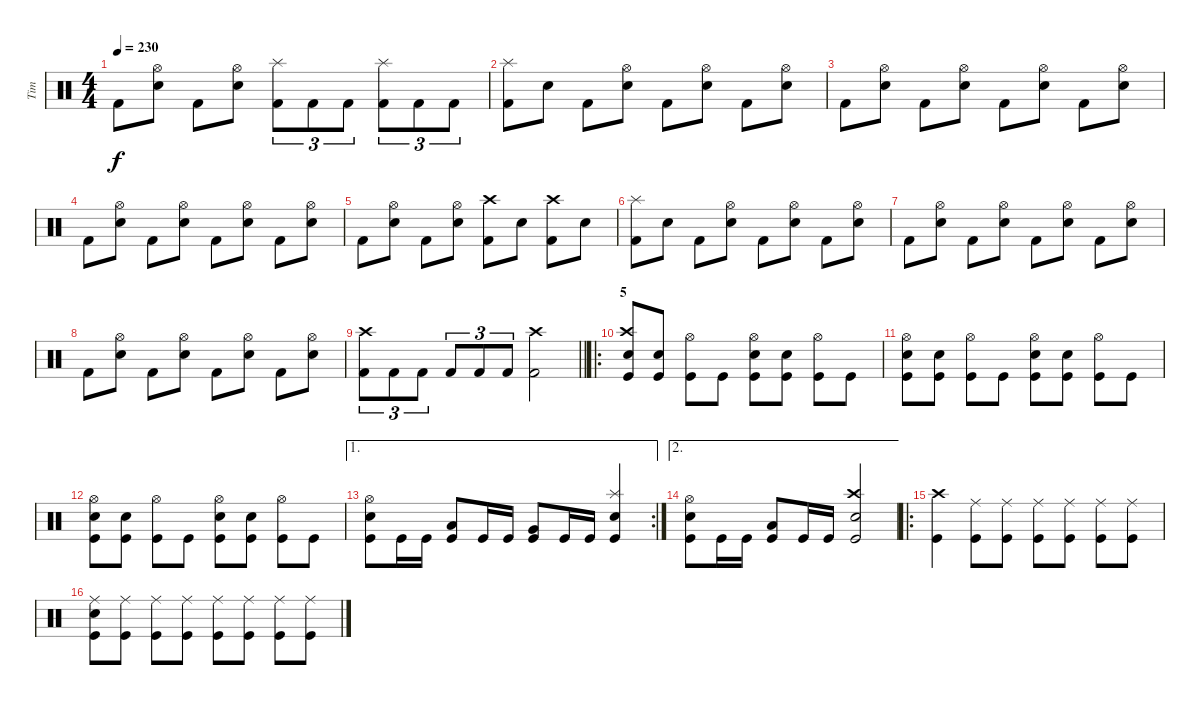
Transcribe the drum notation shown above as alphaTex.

\track ("Tim" "Tim") {instrument percussion}
\staff {score}
\articulation defaults
\ts (4 4)
\tempo 230
\clef neutral
\ks c "Kick (hit) 2".8{dy f}
("Hi-Hat (open)" "Snare (hit) 2").8 "Kick (hit) 2".8 ("Hi-Hat (open)" "Snare (hit) 2").8 ("Splash (hit)" "Kick (hit) 2").8{tu (3 2)} "Kick (hit) 2".8{tu (3 2)} "Kick (hit) 2".8{tu (3 2)} ("Splash (hit)" "Kick (hit) 2").8{tu (3 2)} "Kick (hit) 2".8{tu (3 2)} "Kick (hit) 2".8{tu (3 2)} |
("Splash (hit)" "Kick (hit) 2").8 "Snare (hit) 2".8 "Kick (hit) 2".8 ("Hi-Hat (open)" "Snare (hit) 2").8 "Kick (hit) 2".8 ("Hi-Hat (open)" "Snare (hit) 2").8 "Kick (hit) 2".8 ("Hi-Hat (open)" "Snare (hit) 2").8 |
"Kick (hit) 2".8 ("Hi-Hat (open)" "Snare (hit) 2").8 "Kick (hit) 2".8 ("Hi-Hat (open)" "Snare (hit) 2").8 "Kick (hit) 2".8 ("Hi-Hat (open)" "Snare (hit) 2").8 "Kick (hit) 2".8 ("Hi-Hat (open)" "Snare (hit) 2").8 |
"Kick (hit) 2".8 ("Hi-Hat (open)" "Snare (hit) 2").8 "Kick (hit) 2".8 ("Hi-Hat (open)" "Snare (hit) 2").8 "Kick (hit) 2".8 ("Hi-Hat (open)" "Snare (hit) 2").8 "Kick (hit) 2".8 ("Hi-Hat (open)" "Snare (hit) 2").8 |
"Kick (hit) 2".8 ("Hi-Hat (open)" "Snare (hit) 2").8 "Kick (hit) 2".8 ("Hi-Hat (open)" "Snare (hit) 2").8 ("Crash high (hit)" "Kick (hit) 2").8 "Snare (hit) 2".8 ("Crash high (hit)" "Kick (hit) 2").8 "Snare (hit) 2".8 |
("Splash (hit)" "Kick (hit) 2").8 "Snare (hit) 2".8 "Kick (hit) 2".8 ("Hi-Hat (open)" "Snare (hit) 2").8 "Kick (hit) 2".8 ("Hi-Hat (open)" "Snare (hit) 2").8 "Kick (hit) 2".8 ("Hi-Hat (open)" "Snare (hit) 2").8 |
"Kick (hit) 2".8 ("Hi-Hat (open)" "Snare (hit) 2").8 "Kick (hit) 2".8 ("Hi-Hat (open)" "Snare (hit) 2").8 "Kick (hit) 2".8 ("Hi-Hat (open)" "Snare (hit) 2").8 "Kick (hit) 2".8 ("Hi-Hat (open)" "Snare (hit) 2").8 |
"Kick (hit) 2".8 ("Hi-Hat (open)" "Snare (hit) 2").8 "Kick (hit) 2".8 ("Hi-Hat (open)" "Snare (hit) 2").8 "Kick (hit) 2".8 ("Hi-Hat (open)" "Snare (hit) 2").8 "Kick (hit) 2".8 ("Hi-Hat (open)" "Snare (hit) 2").8 |
\barLineRight lightlight
("Crash high (hit)" "Kick (hit) 2").8{tu (3 2)} "Kick (hit) 2".8{tu (3 2)} "Kick (hit) 2".8{tu (3 2)} "Kick (hit) 2".8{tu (3 2)} "Kick (hit) 2".8{tu (3 2)} "Kick (hit) 2".8{tu (3 2)} ("Crash high (hit)" "Kick (hit) 2").2 |
\ro
\section ("" "5")
("Kick (hit)" "Snare (hit) 2" "Crash high (hit)").8 ("Kick (hit)" "Snare (hit) 2").8 ("Kick (hit)" "Hi-Hat (open)").8 "Kick (hit)".8 ("Kick (hit)" "Hi-Hat (open)" "Snare (hit) 2").8 ("Kick (hit)" "Snare (hit) 2").8 ("Kick (hit)" "Hi-Hat (open)").8 "Kick (hit)".8 |
("Kick (hit)" "Snare (hit) 2" "Hi-Hat (open)").8 ("Kick (hit)" "Snare (hit) 2").8 ("Kick (hit)" "Hi-Hat (open)").8 "Kick (hit)".8 ("Kick (hit)" "Hi-Hat (open)" "Snare (hit) 2").8 ("Kick (hit)" "Snare (hit) 2").8 ("Kick (hit)" "Hi-Hat (open)").8 "Kick (hit)".8 |
("Kick (hit)" "Snare (hit) 2" "Hi-Hat (open)").8 ("Kick (hit)" "Snare (hit) 2").8 ("Kick (hit)" "Hi-Hat (open)").8 "Kick (hit)".8 ("Kick (hit)" "Hi-Hat (open)" "Snare (hit) 2").8 ("Kick (hit)" "Snare (hit) 2").8 ("Kick (hit)" "Hi-Hat (open)").8 "Kick (hit)".8 |
\ae 1
\rc 2
("Kick (hit)" "Snare (hit) 2" "Hi-Hat (open)").8 "Kick (hit)".16 "Kick (hit)".16 ("Kick (hit)" "Low Tom (hit)").8 "Kick (hit)".16 "Kick (hit)".16 ("Kick (hit)" "Very Low Tom (hit)").8 "Kick (hit)".16 "Kick (hit)".16 ("Kick (hit)" "Snare (hit) 2" "Splash (hit)").4 |
\ae 2
("Kick (hit)" "Snare (hit) 2" "Hi-Hat (open)").8 "Kick (hit)".16 "Kick (hit)".16 ("Kick (hit)" "Low Tom (hit)").8 "Kick (hit)".16 "Kick (hit)".16 ("Kick (hit)" "Snare (hit) 2" "Crash high (hit)").2 |
\ro
("Kick (hit)" "Crash high (hit)").4 ("Ride (middle)" "Kick (hit)").8 ("Ride (middle)" "Kick (hit)").8 ("Ride (middle)" "Kick (hit)").8 ("Ride (middle)" "Kick (hit)").8 ("Ride (middle)" "Kick (hit)").8 ("Ride (middle)" "Kick (hit)").8 |
("Ride (middle)" "Kick (hit)" "Snare (hit) 2").8 ("Ride (middle)" "Kick (hit)").8 ("Ride (middle)" "Kick (hit)").8 ("Ride (middle)" "Kick (hit)").8 ("Ride (middle)" "Kick (hit)").8 ("Ride (middle)" "Kick (hit)").8 ("Ride (middle)" "Kick (hit)").8 ("Ride (middle)" "Kick (hit)").8
